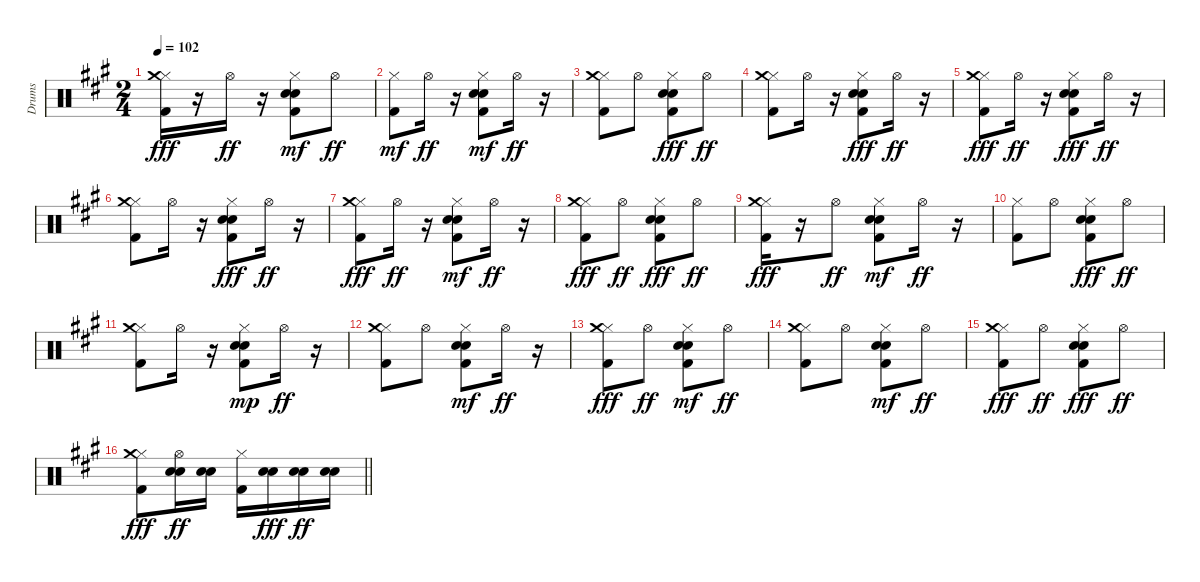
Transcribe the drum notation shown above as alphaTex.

\track ("Drums" "Drums") {instrument percussion}
\staff {score}
\articulation defaults
\ts (2 4)
\tempo 102
\clef neutral
\ks a
("Kick (hit) 2" "Hi-Hat (closed)" "Crash medium (hit)").16{dy fff} r.16 "Hi-Hat (open)".16{dy ff} r.16 ("Kick (hit) 2" "Metronome (bell)" "Electric Snare (hit)" "Hi-Hat (closed)").8{dy mf} "Hi-Hat (open)".8{dy ff} |
("Kick (hit) 2" "Hi-Hat (closed)").8{dy mf} "Hi-Hat (open)".16{dy ff} r.16 ("Kick (hit) 2" "Metronome (bell)" "Electric Snare (hit)" "Hi-Hat (closed)").8{dy mf} "Hi-Hat (open)".16{dy ff} r.16 |
("Kick (hit) 2" "Hi-Hat (closed)" "Crash medium (hit)").8 "Hi-Hat (open)".8 ("Kick (hit) 2" "Metronome (bell)" "Electric Snare (hit)" "Hi-Hat (closed)").8{dy fff} "Hi-Hat (open)".8{dy ff} |
("Kick (hit) 2" "Hi-Hat (closed)" "Crash medium (hit)").8 "Hi-Hat (open)".16 r.16 ("Kick (hit) 2" "Metronome (bell)" "Electric Snare (hit)" "Hi-Hat (closed)").8{dy fff} "Hi-Hat (open)".16{dy ff} r.16 |
("Kick (hit) 2" "Hi-Hat (closed)" "Crash medium (hit)").8{dy fff} "Hi-Hat (open)".16{dy ff} r.16 ("Kick (hit) 2" "Metronome (bell)" "Electric Snare (hit)" "Hi-Hat (closed)").8{dy fff} "Hi-Hat (open)".16{dy ff} r.16 |
("Kick (hit) 2" "Hi-Hat (closed)" "Crash medium (hit)").8 "Hi-Hat (open)".16 r.16 ("Kick (hit) 2" "Metronome (bell)" "Electric Snare (hit)" "Hi-Hat (closed)").8{dy fff} "Hi-Hat (open)".16{dy ff} r.16 |
("Kick (hit) 2" "Hi-Hat (closed)" "Crash medium (hit)").8{dy fff} "Hi-Hat (open)".16{dy ff} r.16 ("Kick (hit) 2" "Metronome (bell)" "Electric Snare (hit)" "Hi-Hat (closed)").8{dy mf} "Hi-Hat (open)".16{dy ff} r.16 |
("Kick (hit) 2" "Hi-Hat (closed)" "Crash medium (hit)").8{dy fff} "Hi-Hat (open)".8{dy ff} ("Kick (hit) 2" "Metronome (bell)" "Electric Snare (hit)" "Hi-Hat (closed)").8{dy fff} "Hi-Hat (open)".8{dy ff} |
("Kick (hit) 2" "Hi-Hat (closed)" "Crash medium (hit)").16{dy fff} r.16 "Hi-Hat (open)".8{dy ff} ("Kick (hit) 2" "Metronome (bell)" "Electric Snare (hit)" "Hi-Hat (closed)").8{dy mf} "Hi-Hat (open)".16{dy ff} r.16 |
("Kick (hit) 2" "Hi-Hat (closed)").8 "Hi-Hat (open)".8 ("Kick (hit) 2" "Metronome (bell)" "Electric Snare (hit)" "Hi-Hat (closed)").8{dy fff} "Hi-Hat (open)".8{dy ff} |
("Kick (hit) 2" "Hi-Hat (closed)" "Crash medium (hit)").8 "Hi-Hat (open)".16 r.16 ("Kick (hit) 2" "Metronome (bell)" "Electric Snare (hit)" "Hi-Hat (closed)").8{dy mp} "Hi-Hat (open)".16{dy ff} r.16 |
("Kick (hit) 2" "Hi-Hat (closed)" "Crash medium (hit)").8 "Hi-Hat (open)".8 ("Kick (hit) 2" "Metronome (bell)" "Electric Snare (hit)" "Hi-Hat (closed)").8{dy mf} "Hi-Hat (open)".16{dy ff} r.16 |
("Kick (hit) 2" "Hi-Hat (closed)" "Crash medium (hit)").8{dy fff} "Hi-Hat (open)".8{dy ff} ("Kick (hit) 2" "Metronome (bell)" "Electric Snare (hit)" "Hi-Hat (closed)").8{dy mf} "Hi-Hat (open)".8{dy ff} |
("Kick (hit) 2" "Hi-Hat (closed)" "Crash medium (hit)").8 "Hi-Hat (open)".8 ("Kick (hit) 2" "Metronome (bell)" "Electric Snare (hit)" "Hi-Hat (closed)").8{dy mf} "Hi-Hat (open)".8{dy ff} |
("Kick (hit) 2" "Hi-Hat (closed)" "Crash medium (hit)").8{dy fff} "Hi-Hat (open)".8{dy ff} ("Kick (hit) 2" "Metronome (bell)" "Electric Snare (hit)" "Hi-Hat (closed)").8{dy fff} "Hi-Hat (open)".8{dy ff} |
\barLineRight lightlight
("Kick (hit) 2" "Hi-Hat (closed)" "Crash medium (hit)").8{dy fff} ("Metronome (bell)" "Electric Snare (hit)" "Hi-Hat (open)").16{dy ff} ("Metronome (bell)" "Electric Snare (hit)").16 ("Kick (hit) 2" "Hi-Hat (closed)").16 ("Metronome (bell)" "Electric Snare (hit)").16{dy fff} ("Metronome (bell)" "Electric Snare (hit)").16{dy ff} ("Metronome (bell)" "Electric Snare (hit)").16
